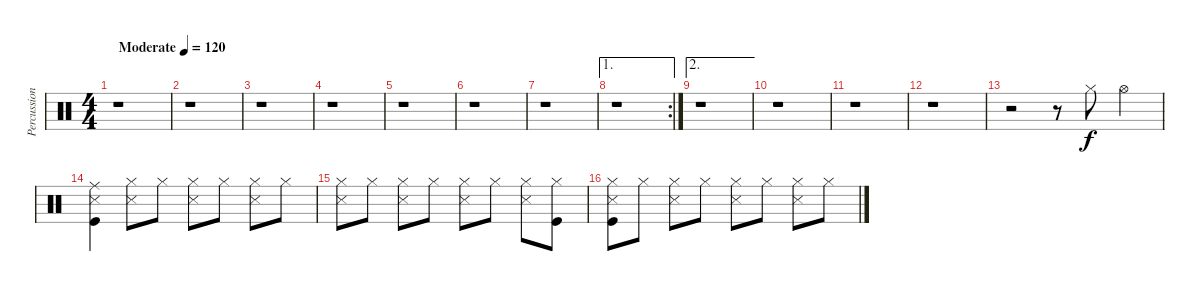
\track ("Percussion" "Percussion") {instrument percussion}
\staff {score}
\articulation defaults
\ts (4 4)
\tempo (120 "Moderate")
\clef neutral
\ks c
r.1{dy f} |
r.1 |
r.1 |
r.1 |
r.1 |
r.1 |
r.1 |
\ae 1
\rc 2
r.1 |
\ae 2
r.1 |
r.1 |
r.1 |
r.1 |
r.2 r.8 "Hi-Hat (closed)".8 "Hi-Hat (open)".4 |
("Ride (middle)" "Snare (side stick) 3" "Kick (hit)").4 ("Hi-Hat (closed)" "Snare (side stick) 3").8 "Hi-Hat (closed)".8 ("Hi-Hat (closed)" "Snare (side stick) 3").8 "Hi-Hat (closed)".8 ("Hi-Hat (closed)" "Snare (side stick) 3").8 "Hi-Hat (closed)".8 |
("Hi-Hat (closed)" "Snare (side stick) 3").8 "Hi-Hat (closed)".8 ("Hi-Hat (closed)" "Snare (side stick) 3").8 "Hi-Hat (closed)".8 ("Hi-Hat (closed)" "Snare (side stick) 3").8 "Hi-Hat (closed)".8 ("Hi-Hat (closed)" "Snare (side stick) 3").8 ("Hi-Hat (closed)" "Kick (hit)").8 |
("Hi-Hat (closed)" "Snare (side stick) 3" "Kick (hit)").8 "Hi-Hat (closed)".8 ("Hi-Hat (closed)" "Snare (side stick) 3").8 "Hi-Hat (closed)".8 ("Hi-Hat (closed)" "Snare (side stick) 3").8 "Hi-Hat (closed)".8 ("Hi-Hat (closed)" "Snare (side stick) 3").8 "Hi-Hat (closed)".8
